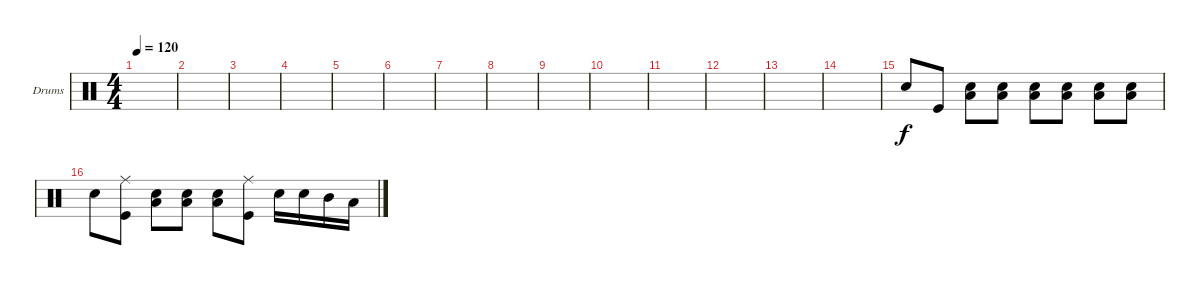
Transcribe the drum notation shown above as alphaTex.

\bracketExtendMode groupsimilarinstruments
\firstSystemTrackNameOrientation horizontal
\otherSystemsTrackNameOrientation horizontal
\track ("Drumkit" "Drums") {instrument percussion}
\staff {score}
\articulation defaults
\ts (4 4)
\tempo 120
\clef neutral
\scale
0.333333
\ks c
|
\scale
0.333333 |
\scale
0.333333 |
\scale
0.333333 |
\scale
0.333333 |
\scale
0.333333 |
\scale
0.333333 |
\scale
0.333333 |
\scale
0.333333 |
\scale
0.333333 |
\scale
0.333333 |
\scale
0.333333 |
\scale
0.333333 |
\scale
0.333333 |
\scale
0.333333 "Snare (hit) 2".8 "Kick (hit)".8 ("Snare (hit) 2" "Low Tom (hit)").8 ("Snare (hit) 2" "Low Tom (hit)").8 ("Snare (hit) 2" "Low Tom (hit)").8 ("Snare (hit) 2" "Low Tom (hit)").8 ("Snare (hit) 2" "Low Tom (hit)").8 ("Snare (hit) 2" "Low Tom (hit)").8 |
\scale
0.333333 "Snare (hit) 2".8 ("Kick (hit)" "Ride (middle)").8 ("Snare (hit) 2" "Low Tom (hit)").8 ("Snare (hit) 2" "Low Tom (hit)").8 ("Snare (hit) 2" "Low Tom (hit)").8 ("Kick (hit)" "Ride (middle)").8 "Snare (hit) 2".16 "Snare (hit) 2".16 "Mid Tom (hit)".16 "Low Tom (hit)".16
